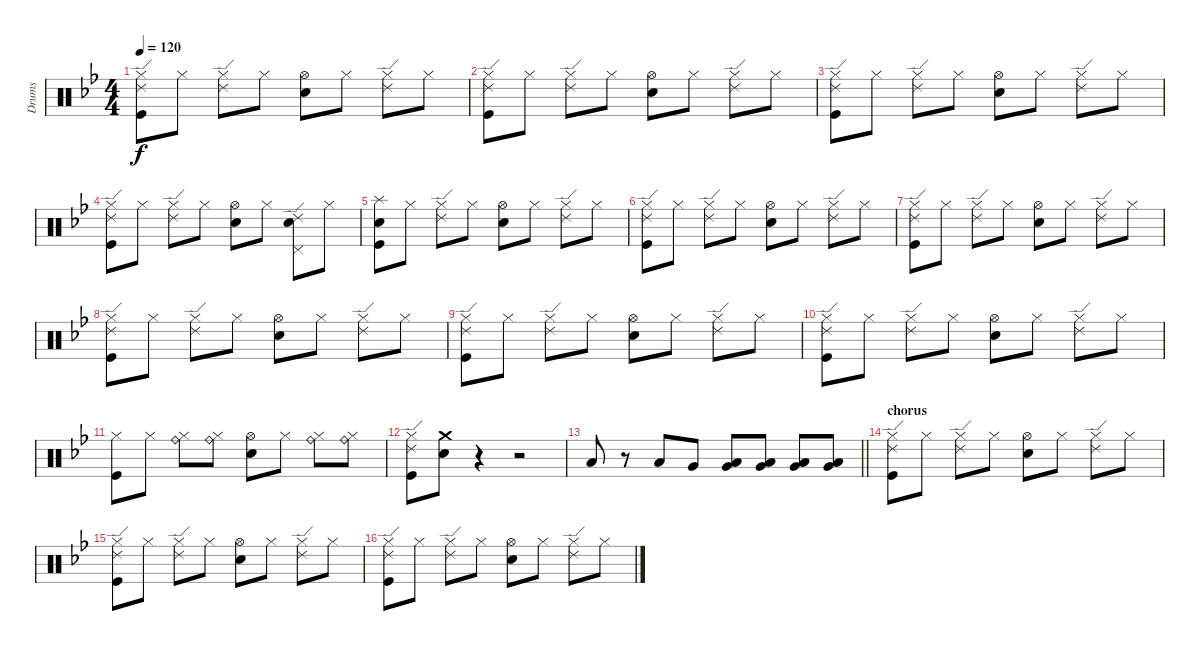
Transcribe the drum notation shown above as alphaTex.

\track ("Drums" "Drums") {instrument percussion}
\staff {score}
\articulation defaults
\ts (4 4)
\tempo 120
\clef neutral
\ks gminor
("Hi-Hat (closed)" "Ride (edge) 2" "Kick (hit)").8{dy f} "Hi-Hat (closed)".8 ("Hi-Hat (closed)" "Ride (edge) 2").8 "Hi-Hat (closed)".8 ("Hi-Hat (open)" "Electric Snare (hit)").8 "Hi-Hat (closed)".8 ("Hi-Hat (closed)" "Ride (edge) 2").8 "Hi-Hat (closed)".8 |
("Hi-Hat (closed)" "Ride (edge) 2" "Kick (hit)").8 "Hi-Hat (closed)".8 ("Hi-Hat (closed)" "Ride (edge) 2").8 "Hi-Hat (closed)".8 ("Hi-Hat (open)" "Electric Snare (hit)").8 "Hi-Hat (closed)".8 ("Hi-Hat (closed)" "Ride (edge) 2").8 "Hi-Hat (closed)".8 |
("Hi-Hat (closed)" "Ride (edge) 2" "Kick (hit)").8 "Hi-Hat (closed)".8 ("Hi-Hat (closed)" "Ride (edge) 2").8 "Hi-Hat (closed)".8 ("Hi-Hat (open)" "Electric Snare (hit)").8 "Hi-Hat (closed)".8 ("Hi-Hat (closed)" "Ride (edge) 2").8 "Hi-Hat (closed)".8 |
("Hi-Hat (closed)" "Ride (edge) 2" "Kick (hit)").8 "Hi-Hat (closed)".8 ("Hi-Hat (closed)" "Ride (edge) 2").8 "Hi-Hat (closed)".8 ("Hi-Hat (open)" "Electric Snare (hit)").8 "Hi-Hat (closed)".8 ("Pedal Hi-Hat (hit)" "Ride (edge) 2" "Electric Snare (hit)").8 "Hi-Hat (closed)".8 |
("Splash (hit)" "Electric Snare (hit)" "Kick (hit)").8 "Hi-Hat (closed)".8 ("Hi-Hat (closed)" "Ride (edge) 2").8 "Hi-Hat (closed)".8 ("Hi-Hat (open)" "Electric Snare (hit)").8 "Hi-Hat (closed)".8 ("Hi-Hat (closed)" "Ride (edge) 2").8 "Hi-Hat (closed)".8 |
("Hi-Hat (closed)" "Ride (edge) 2" "Kick (hit)").8 "Hi-Hat (closed)".8 ("Hi-Hat (closed)" "Ride (edge) 2").8 "Hi-Hat (closed)".8 ("Hi-Hat (open)" "Electric Snare (hit)").8 "Hi-Hat (closed)".8 ("Hi-Hat (closed)" "Ride (edge) 2").8 "Hi-Hat (closed)".8 |
("Hi-Hat (closed)" "Ride (edge) 2" "Kick (hit)").8 "Hi-Hat (closed)".8 ("Hi-Hat (closed)" "Ride (edge) 2").8 "Hi-Hat (closed)".8 ("Hi-Hat (open)" "Electric Snare (hit)").8 "Hi-Hat (closed)".8 ("Hi-Hat (closed)" "Ride (edge) 2").8 "Hi-Hat (closed)".8 |
("Hi-Hat (closed)" "Ride (edge) 2" "Kick (hit)").8 "Hi-Hat (closed)".8 ("Hi-Hat (closed)" "Ride (edge) 2").8 "Hi-Hat (closed)".8 ("Hi-Hat (open)" "Electric Snare (hit)").8 "Hi-Hat (closed)".8 ("Hi-Hat (closed)" "Ride (edge) 2").8 "Hi-Hat (closed)".8 |
("Hi-Hat (closed)" "Ride (edge) 2" "Kick (hit)").8 "Hi-Hat (closed)".8 ("Hi-Hat (closed)" "Ride (edge) 2").8 "Hi-Hat (closed)".8 ("Hi-Hat (open)" "Electric Snare (hit)").8 "Hi-Hat (closed)".8 ("Hi-Hat (closed)" "Ride (edge) 2").8 "Hi-Hat (closed)".8 |
("Hi-Hat (closed)" "Ride (edge) 2" "Kick (hit)").8 "Hi-Hat (closed)".8 ("Hi-Hat (closed)" "Ride (edge) 2").8 "Hi-Hat (closed)".8 ("Hi-Hat (open)" "Electric Snare (hit)").8 "Hi-Hat (closed)".8 ("Hi-Hat (closed)" "Ride (edge) 2").8 "Hi-Hat (closed)".8 |
("Hi-Hat (closed)" "Kick (hit)").8 "Hi-Hat (closed)".8 ("Hi-Hat (closed)" "Ride (bell)").8 ("Hi-Hat (closed)" "Ride (bell)").8 ("Hi-Hat (open)" "Electric Snare (hit)").8 "Hi-Hat (closed)".8 ("Hi-Hat (closed)" "Ride (bell)").8 ("Hi-Hat (closed)" "Ride (bell)").8 |
("Hi-Hat (closed)" "Ride (edge) 2" "Kick (hit)").8 ("Crash medium (hit)" "Electric Snare (hit)").8 r.4 r.2 |
\barLineRight lightlight "Low Tom (hit)".8
r.8 "Low Tom (hit)".8 "Very Low Tom (hit)".8 ("Very Low Tom (hit)" "Low Floor Tom (hit)").8 ("Very Low Tom (hit)" "Low Floor Tom (hit)").8 ("Very Low Tom (hit)" "Low Floor Tom (hit)").8 ("Very Low Tom (hit)" "Low Floor Tom (hit)").8 |
\section ("" "chorus ")
("Hi-Hat (closed)" "Ride (edge) 2" "Kick (hit)").8 "Hi-Hat (closed)".8 ("Hi-Hat (closed)" "Ride (edge) 2").8 "Hi-Hat (closed)".8 ("Hi-Hat (open)" "Electric Snare (hit)").8 "Hi-Hat (closed)".8 ("Hi-Hat (closed)" "Ride (edge) 2").8 "Hi-Hat (closed)".8 |
("Hi-Hat (closed)" "Ride (edge) 2" "Kick (hit)").8 "Hi-Hat (closed)".8 ("Hi-Hat (closed)" "Ride (edge) 2").8 "Hi-Hat (closed)".8 ("Hi-Hat (open)" "Electric Snare (hit)").8 "Hi-Hat (closed)".8 ("Hi-Hat (closed)" "Ride (edge) 2").8 "Hi-Hat (closed)".8 |
("Hi-Hat (closed)" "Ride (edge) 2" "Kick (hit)").8 "Hi-Hat (closed)".8 ("Hi-Hat (closed)" "Ride (edge) 2").8 "Hi-Hat (closed)".8 ("Hi-Hat (open)" "Electric Snare (hit)").8 "Hi-Hat (closed)".8 ("Hi-Hat (closed)" "Ride (edge) 2").8 "Hi-Hat (closed)".8
